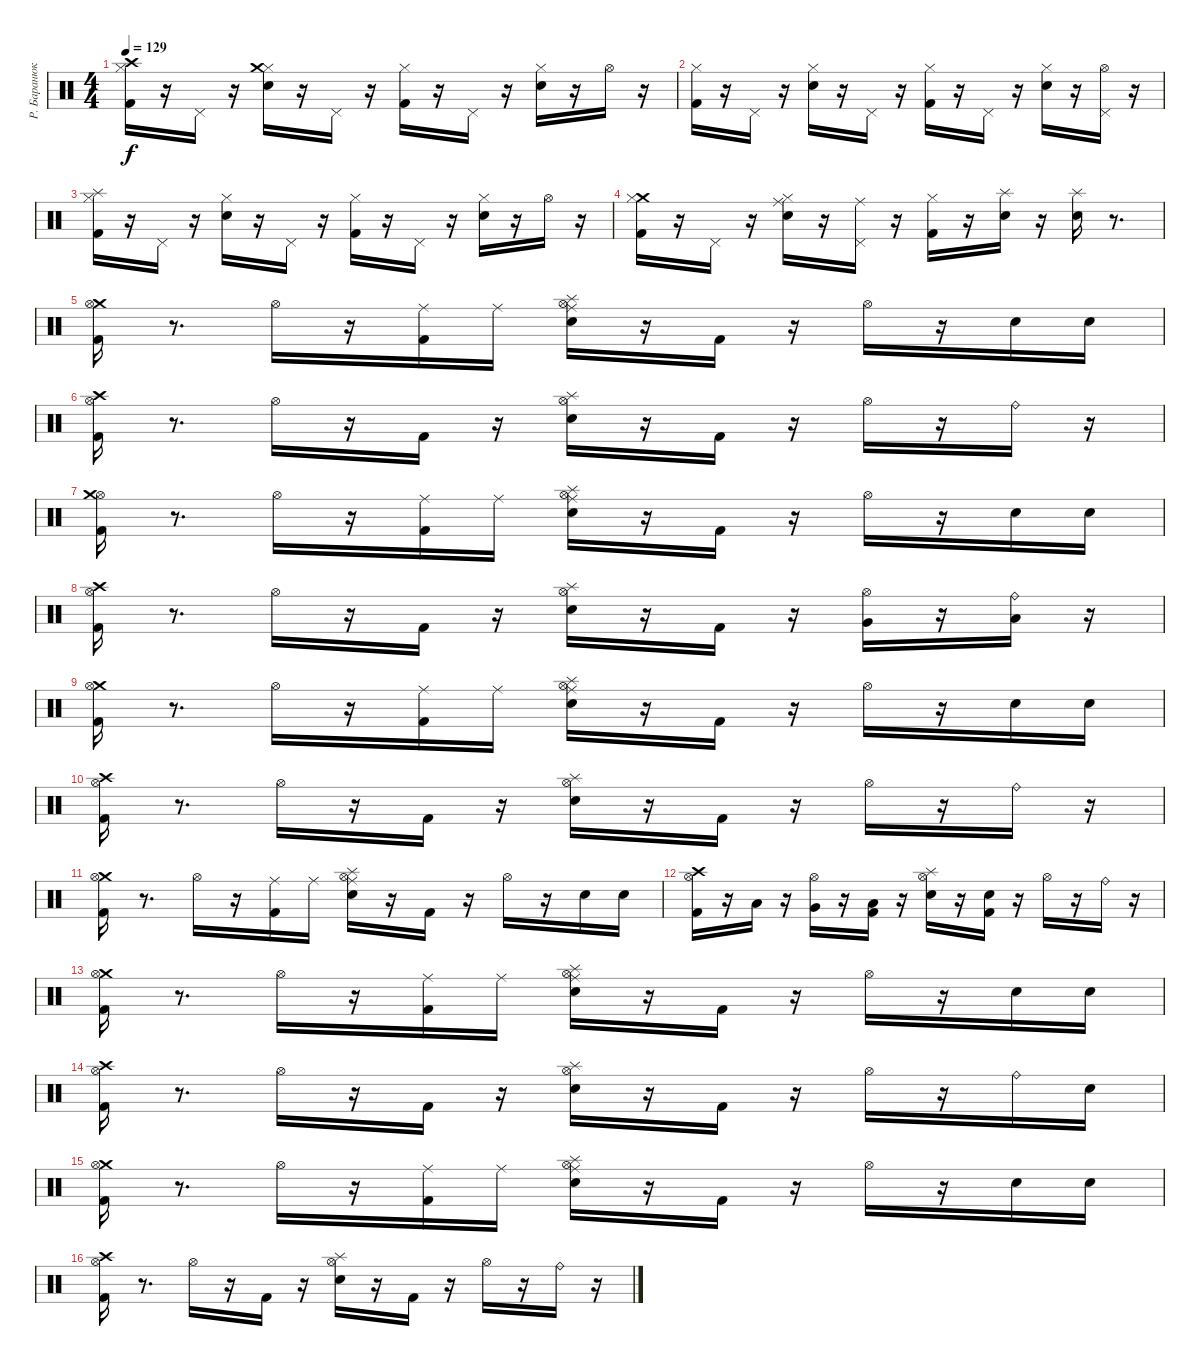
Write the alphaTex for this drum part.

\track ("Р. Баранюк" "Р. Баранюк") {instrument percussion}
\staff {score}
\articulation defaults
\ts (4 4)
\tempo 129
\clef neutral
\ks c
("Kick (hit) 2" "Hi-Hat (closed)" "Crash high (hit)").16{dy f} r.16 "Pedal Hi-Hat (hit)".16 r.16 ("Electric Snare (hit)" "Hi-Hat (closed)" "Crash medium (hit)").16 r.16 "Pedal Hi-Hat (hit)".16 r.16 ("Hi-Hat (closed)" "Kick (hit) 2").16 r.16 "Pedal Hi-Hat (hit)".16 r.16 ("Electric Snare (hit)" "Hi-Hat (closed)").16 r.16 "Hi-Hat (open)".16 r.16 |
("Kick (hit) 2" "Hi-Hat (closed)").16 r.16 "Pedal Hi-Hat (hit)".16 r.16 ("Electric Snare (hit)" "Hi-Hat (closed)").16 r.16 "Pedal Hi-Hat (hit)".16 r.16 ("Hi-Hat (closed)" "Kick (hit) 2").16 r.16 "Pedal Hi-Hat (hit)".16 r.16 ("Electric Snare (hit)" "Hi-Hat (closed)").16 r.16 ("Pedal Hi-Hat (hit)" "Hi-Hat (open)").16 r.16 |
("Kick (hit) 2" "Hi-Hat (closed)" "Splash (hit)").16 r.16 "Pedal Hi-Hat (hit)".16 r.16 ("Electric Snare (hit)" "Hi-Hat (closed)").16 r.16 "Pedal Hi-Hat (hit)".16 r.16 ("Hi-Hat (closed)" "Kick (hit) 2").16 r.16 "Pedal Hi-Hat (hit)".16 r.16 ("Electric Snare (hit)" "Hi-Hat (closed)").16 r.16 "Hi-Hat (open)".16 r.16 |
("Crash medium (hit)" "Hi-Hat (closed)" "Kick (hit) 2").16 r.16 "Pedal Hi-Hat (hit)".16 r.16 ("Electric Snare (hit)" "Hi-Hat (closed)" "Ride (middle)").16 r.16 ("Pedal Hi-Hat (hit)" "Ride (middle)").16 r.16 ("Hi-Hat (closed)" "Kick (hit) 2").16 r.16 ("Splash (hit)" "Electric Snare (hit)").16 r.16 ("Splash (hit)" "Electric Snare (hit)").16 r.8{d} |
("Crash medium (hit)" "Hi-Hat (open)" "Kick (hit) 2").16 r.8{d} "Hi-Hat (open)".16 r.16 ("Ride (middle)" "Kick (hit) 2").16 "Ride (middle)".16 ("Ride (middle)" "Splash (hit)" "Hi-Hat (open)" "Electric Snare (hit)").16 r.16 "Kick (hit) 2".16 r.16 "Hi-Hat (open)".16 r.16 "Electric Snare (hit)".16 "Snare (hit) 2".16 |
("Crash high (hit)" "Kick (hit) 2" "Hi-Hat (open)").16 r.8{d} "Hi-Hat (open)".16 r.16 "Kick (hit) 2".16 r.16 ("Splash (hit)" "Electric Snare (hit)" "Hi-Hat (open)").16 r.16 "Kick (hit) 2".16 r.16 "Hi-Hat (open)".16 r.16 "Ride (bell)".16 r.16 |
("Kick (hit) 2" "Hi-Hat (open)" "Crash medium (hit)").16 r.8{d} "Hi-Hat (open)".16 r.16 ("Ride (middle)" "Kick (hit) 2").16 "Ride (middle)".16 ("Ride (middle)" "Splash (hit)" "Hi-Hat (open)" "Electric Snare (hit)").16 r.16 "Kick (hit) 2".16 r.16 "Hi-Hat (open)".16 r.16 "Electric Snare (hit)".16 "Snare (hit) 2".16 |
("Crash high (hit)" "Kick (hit) 2" "Hi-Hat (open)").16 r.8{d} "Hi-Hat (open)".16 r.16 "Kick (hit) 2".16 r.16 ("Splash (hit)" "Electric Snare (hit)" "Hi-Hat (open)").16 r.16 "Kick (hit) 2".16 r.16 ("Very Low Tom (hit)" "Hi-Hat (open)").16 r.16 ("Low Floor Tom (hit)" "Ride (bell)").16 r.16 |
("Crash medium (hit)" "Hi-Hat (open)" "Kick (hit) 2").16 r.8{d} "Hi-Hat (open)".16 r.16 ("Ride (middle)" "Kick (hit) 2").16 "Ride (middle)".16 ("Ride (middle)" "Splash (hit)" "Hi-Hat (open)" "Electric Snare (hit)").16 r.16 "Kick (hit) 2".16 r.16 "Hi-Hat (open)".16 r.16 "Electric Snare (hit)".16 "Snare (hit) 2".16 |
("Crash high (hit)" "Kick (hit) 2" "Hi-Hat (open)").16 r.8{d} "Hi-Hat (open)".16 r.16 "Kick (hit) 2".16 r.16 ("Splash (hit)" "Electric Snare (hit)" "Hi-Hat (open)").16 r.16 "Kick (hit) 2".16 r.16 "Hi-Hat (open)".16 r.16 "Ride (bell)".16 r.16 |
("Crash medium (hit)" "Hi-Hat (open)" "Kick (hit) 2").16 r.8{d} "Hi-Hat (open)".16 r.16 ("Ride (middle)" "Kick (hit) 2").16 "Ride (middle)".16 ("Ride (middle)" "Splash (hit)" "Electric Snare (hit)" "Hi-Hat (open)").16 r.16 "Kick (hit) 2".16 r.16 "Hi-Hat (open)".16 r.16 "Electric Snare (hit)".16 "Snare (hit) 2".16 |
("Crash high (hit)" "Kick (hit) 2" "Hi-Hat (open)").16 r.16 "Low Tom (hit)".16 r.16 ("Very Low Tom (hit)" "Hi-Hat (open)").16 r.16 ("Low Floor Tom (hit)" "Kick (hit) 2").16 r.16 ("Splash (hit)" "Electric Snare (hit)" "Hi-Hat (open)").16 r.16 ("Snare (hit) 2" "Kick (hit) 2").16 r.16 "Hi-Hat (open)".16 r.16 "Ride (bell)".16 r.16 |
("Crash medium (hit)" "Hi-Hat (open)" "Kick (hit) 2").16 r.8{d} "Hi-Hat (open)".16 r.16 ("Ride (middle)" "Kick (hit) 2").16 "Ride (middle)".16 ("Ride (middle)" "Splash (hit)" "Hi-Hat (open)" "Electric Snare (hit)").16 r.16 "Kick (hit) 2".16 r.16 "Hi-Hat (open)".16 r.16 "Electric Snare (hit)".16 "Snare (hit) 2".16 |
("Crash high (hit)" "Kick (hit) 2" "Hi-Hat (open)").16 r.8{d} "Hi-Hat (open)".16 r.16 "Kick (hit) 2".16 r.16 ("Splash (hit)" "Electric Snare (hit)" "Hi-Hat (open)").16 r.16 "Kick (hit) 2".16 r.16 "Hi-Hat (open)".16 r.16 "Ride (bell)".16 "Snare (hit) 2".16 |
("Crash medium (hit)" "Kick (hit) 2" "Hi-Hat (open)").16 r.8{d} "Hi-Hat (open)".16 r.16 ("Ride (middle)" "Kick (hit) 2").16 "Ride (middle)".16 ("Electric Snare (hit)" "Hi-Hat (open)" "Splash (hit)" "Ride (middle)").16 r.16 "Kick (hit) 2".16 r.16 "Hi-Hat (open)".16 r.16 "Electric Snare (hit)".16 "Snare (hit) 2".16 |
("Hi-Hat (open)" "Kick (hit) 2" "Crash high (hit)").16 r.8{d} "Hi-Hat (open)".16 r.16 "Kick (hit) 2".16 r.16 ("Hi-Hat (open)" "Electric Snare (hit)" "Splash (hit)").16 r.16 "Kick (hit) 2".16 r.16 "Hi-Hat (open)".16 r.16 "Ride (bell)".16 r.16
